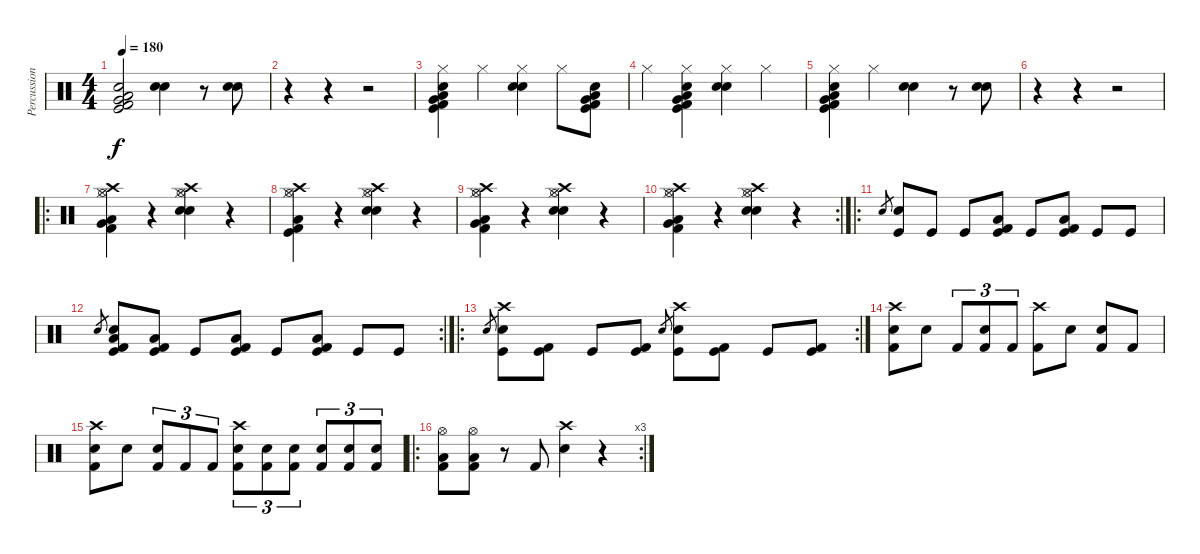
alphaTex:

\track ("Percussions" "Percussion") {instrument percussion}
\staff {score}
\articulation defaults
\ts (4 4)
\tempo 180
\clef neutral
\ks c
("Kick (hit) 2" "Low Floor Tom (hit)" "Kick (hit)" "Electric Snare (hit)" "Very Low Tom (hit)").2{dy f} ("Electric Snare (hit)" "Snare (hit) 2").4 r.8 ("Electric Snare (hit)" "Snare (hit) 2").8 |
r.4 r.4 r.2 |
("Kick (hit) 2" "Low Floor Tom (hit)" "Kick (hit)" "Electric Snare (hit)" "Very Low Tom (hit)" "Hi-Hat (closed)").4 "Hi-Hat (closed)".4 ("Electric Snare (hit)" "Snare (hit) 2" "Hi-Hat (closed)").4 "Hi-Hat (closed)".8 ("Kick (hit) 2" "Low Floor Tom (hit)" "Kick (hit)" "Electric Snare (hit)" "Very Low Tom (hit)").8 |
"Hi-Hat (closed)".4 ("Kick (hit) 2" "Low Floor Tom (hit)" "Kick (hit)" "Electric Snare (hit)" "Very Low Tom (hit)" "Hi-Hat (closed)").4 ("Electric Snare (hit)" "Snare (hit) 2" "Hi-Hat (closed)").4 "Hi-Hat (closed)".4 |
("Kick (hit) 2" "Low Floor Tom (hit)" "Kick (hit)" "Electric Snare (hit)" "Very Low Tom (hit)" "Hi-Hat (closed)").4 "Hi-Hat (closed)".4 ("Electric Snare (hit)" "Snare (hit) 2").4 r.8 ("Electric Snare (hit)" "Snare (hit) 2").8 |
r.4 r.4 r.2 |
\ro
("Kick (hit) 2" "Low Floor Tom (hit)" "Crash high (hit)" "Hi-Hat (open)" "Very Low Tom (hit)" "Hi-Hat (closed)").4 r.4 ("Electric Snare (hit)" "Snare (hit) 2" "Crash high (hit)" "Hi-Hat (open)" "Hi-Hat (closed)").4 r.4 |
("Kick (hit) 2" "Hi-Hat (open)" "Crash high (hit)" "Hi-Hat (closed)" "Low Floor Tom (hit)" "Kick (hit)").4 r.4 ("Electric Snare (hit)" "Snare (hit) 2" "Hi-Hat (open)" "Hi-Hat (closed)" "Crash high (hit)").4 r.4 |
("Kick (hit) 2" "Low Floor Tom (hit)" "Crash high (hit)" "Hi-Hat (open)" "Very Low Tom (hit)" "Hi-Hat (closed)").4 r.4 ("Electric Snare (hit)" "Snare (hit) 2" "Crash high (hit)" "Hi-Hat (open)" "Hi-Hat (closed)").4 r.4 |
\rc 2
("Kick (hit) 2" "Low Floor Tom (hit)" "Crash high (hit)" "Hi-Hat (open)" "Very Low Tom (hit)" "Hi-Hat (closed)").4 r.4 ("Electric Snare (hit)" "Snare (hit) 2" "Crash high (hit)" "Hi-Hat (open)" "Hi-Hat (closed)").4 r.4 |
\ro "Snare (hit) 2".8{gr}
("Kick (hit)" "Snare (hit) 2").8 "Kick (hit)".8 "Kick (hit)".8 ("Kick (hit)" "Kick (hit) 2" "Low Floor Tom (hit)").8 "Kick (hit)".8 ("Kick (hit)" "Kick (hit) 2" "Low Floor Tom (hit)").8 "Kick (hit)".8 "Kick (hit)".8 |
\rc 2 "Snare (hit) 2".8{gr}
("Kick (hit)" "Kick (hit) 2" "Low Floor Tom (hit)" "Snare (hit) 2").8 ("Kick (hit)" "Kick (hit) 2" "Low Floor Tom (hit)").8 "Kick (hit)".8 ("Kick (hit)" "Low Floor Tom (hit)" "Kick (hit) 2").8 "Kick (hit)".8 ("Kick (hit)" "Low Floor Tom (hit)" "Kick (hit) 2").8 "Kick (hit)".8 "Kick (hit)".8 |
\ro
\rc 2 "Snare (hit) 2".8{gr}
("Kick (hit)" "Crash high (hit)" "Snare (hit) 2").8 ("Kick (hit)" "Kick (hit) 2").8 "Kick (hit)".8 ("Kick (hit)" "Kick (hit) 2").8 "Snare (hit) 2".8{gr} ("Kick (hit)" "Crash high (hit)" "Snare (hit) 2").8 ("Kick (hit)" "Kick (hit) 2").8 "Kick (hit)".8 ("Kick (hit)" "Kick (hit) 2").8 |
("Crash high (hit)" "Kick (hit) 2" "Snare (hit) 2").8 "Snare (hit) 2".8 "Kick (hit) 2".8{tu (3 2)} ("Kick (hit) 2" "Snare (hit) 2").8{tu (3 2)} "Kick (hit) 2".8{tu (3 2)} ("Crash high (hit)" "Kick (hit) 2").8 "Snare (hit) 2".8 ("Kick (hit) 2" "Snare (hit) 2").8 "Kick (hit) 2".8 |
("Crash high (hit)" "Kick (hit) 2" "Snare (hit) 2").8 "Snare (hit) 2".8 ("Kick (hit) 2" "Snare (hit) 2").8{tu (3 2)} "Kick (hit) 2".8{tu (3 2)} "Kick (hit) 2".8{tu (3 2)} ("Crash high (hit)" "Kick (hit) 2" "Snare (hit) 2").8{tu (3 2)} ("Kick (hit) 2" "Snare (hit) 2").8{tu (3 2)} ("Kick (hit) 2" "Snare (hit) 2").8{tu (3 2)} ("Kick (hit) 2" "Snare (hit) 2").8{tu (3 2)} ("Kick (hit) 2" "Snare (hit) 2").8{tu (3 2)} ("Kick (hit) 2" "Snare (hit) 2").8{tu (3 2)} |
\ro
\rc 3
("Hi-Hat (open)" "Kick (hit) 2" "Low Floor Tom (hit)").8 ("Hi-Hat (open)" "Kick (hit) 2" "Low Floor Tom (hit)").8 r.8 "Kick (hit) 2".8 ("Crash high (hit)" "Snare (hit) 2").4 r.4
